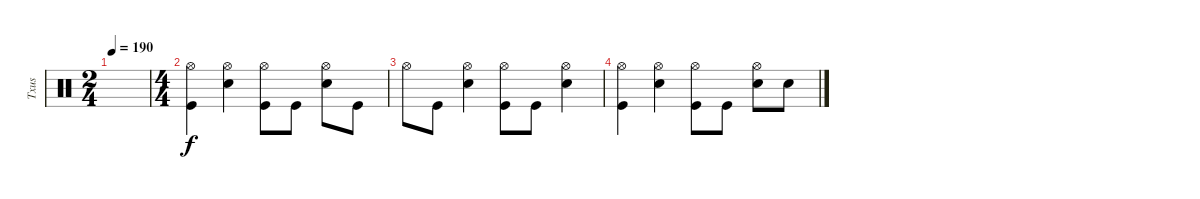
\track ("Txus" "Txus") {instrument percussion}
\staff {score}
\articulation defaults
\ts (2 4)
\tempo 190
\clef neutral
\ks c
|
\ts (4 4)
("Kick (hit)" "Hi-Hat (open)").4 ("Snare (hit) 2" "Hi-Hat (open)").4 ("Kick (hit)" "Hi-Hat (open)").8 "Kick (hit)".8 ("Snare (hit) 2" "Hi-Hat (open)").8 "Kick (hit)".8 |
"Hi-Hat (open)".8 "Kick (hit)".8 ("Snare (hit) 2" "Hi-Hat (open)").4 ("Kick (hit)" "Hi-Hat (open)").8 "Kick (hit)".8 ("Snare (hit) 2" "Hi-Hat (open)").4 |
("Kick (hit)" "Hi-Hat (open)").4 ("Snare (hit) 2" "Hi-Hat (open)").4 ("Kick (hit)" "Hi-Hat (open)").8 "Kick (hit)".8 ("Snare (hit) 2" "Hi-Hat (open)").8 "Snare (hit) 2".8
